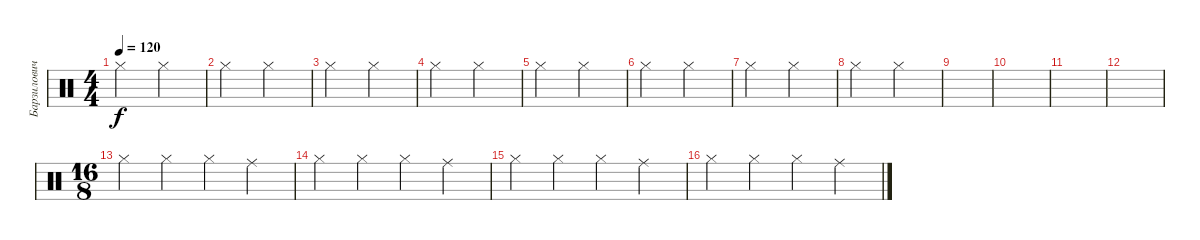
\track ("Барзилович" "Барзилович") {instrument percussion}
\staff {score}
\articulation defaults
\ts (4 4)
\tempo 120
\clef neutral
\ks c "Hi-Hat (closed)".2{dy f} "Hi-Hat (closed)".2
|
"Hi-Hat (closed)".2 "Hi-Hat (closed)".2 |
"Hi-Hat (closed)".2 "Hi-Hat (closed)".2 |
"Hi-Hat (closed)".2 "Hi-Hat (closed)".2 |
"Hi-Hat (closed)".2 "Hi-Hat (closed)".2 |
"Hi-Hat (closed)".2 "Hi-Hat (closed)".2 |
"Hi-Hat (closed)".2 "Hi-Hat (closed)".2 |
"Hi-Hat (closed)".2 "Hi-Hat (closed)".2 |
|
|
|
|
\ts (16 8)
"Hi-Hat (closed)".2 "Hi-Hat (closed)".2 "Hi-Hat (closed)".2 "Ride (middle)".2 |
"Hi-Hat (closed)".2 "Hi-Hat (closed)".2 "Hi-Hat (closed)".2 "Ride (middle)".2 |
"Hi-Hat (closed)".2 "Hi-Hat (closed)".2 "Hi-Hat (closed)".2 "Ride (middle)".2 |
"Hi-Hat (closed)".2 "Hi-Hat (closed)".2 "Hi-Hat (closed)".2 "Ride (middle)".2
